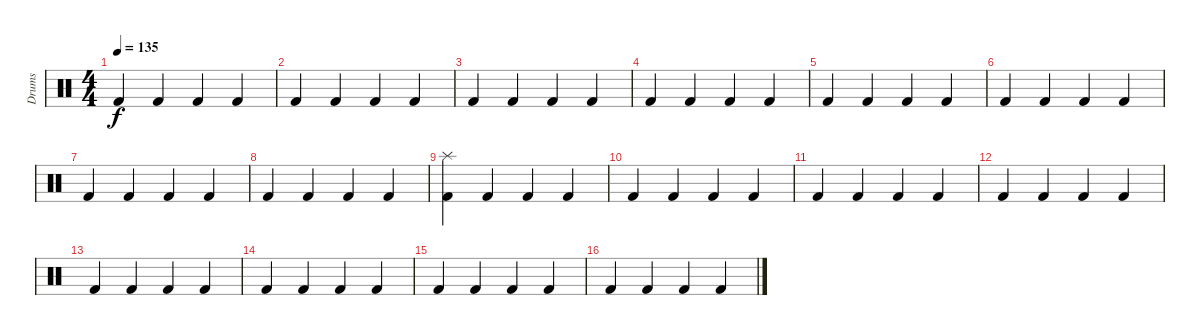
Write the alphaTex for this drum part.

\track ("Drums" "Drums") {instrument percussion}
\staff {score}
\articulation defaults
\ts (4 4)
\tempo 135
\clef neutral
\ks c "Kick (hit) 2".4{dy f} "Kick (hit) 2".4 "Kick (hit) 2".4 "Kick (hit) 2".4
|
"Kick (hit) 2".4 "Kick (hit) 2".4 "Kick (hit) 2".4 "Kick (hit) 2".4 |
"Kick (hit) 2".4 "Kick (hit) 2".4 "Kick (hit) 2".4 "Kick (hit) 2".4 |
"Kick (hit) 2".4 "Kick (hit) 2".4 "Kick (hit) 2".4 "Kick (hit) 2".4 |
"Kick (hit) 2".4 "Kick (hit) 2".4 "Kick (hit) 2".4 "Kick (hit) 2".4 |
"Kick (hit) 2".4 "Kick (hit) 2".4 "Kick (hit) 2".4 "Kick (hit) 2".4 |
"Kick (hit) 2".4 "Kick (hit) 2".4 "Kick (hit) 2".4 "Kick (hit) 2".4 |
"Kick (hit) 2".4 "Kick (hit) 2".4 "Kick (hit) 2".4 "Kick (hit) 2".4 |
("Splash (hit)" "Kick (hit) 2").4 "Kick (hit) 2".4 "Kick (hit) 2".4 "Kick (hit) 2".4 |
"Kick (hit) 2".4 "Kick (hit) 2".4 "Kick (hit) 2".4 "Kick (hit) 2".4 |
"Kick (hit) 2".4 "Kick (hit) 2".4 "Kick (hit) 2".4 "Kick (hit) 2".4 |
"Kick (hit) 2".4 "Kick (hit) 2".4 "Kick (hit) 2".4 "Kick (hit) 2".4 |
"Kick (hit) 2".4 "Kick (hit) 2".4 "Kick (hit) 2".4 "Kick (hit) 2".4 |
"Kick (hit) 2".4 "Kick (hit) 2".4 "Kick (hit) 2".4 "Kick (hit) 2".4 |
"Kick (hit) 2".4 "Kick (hit) 2".4 "Kick (hit) 2".4 "Kick (hit) 2".4 |
"Kick (hit) 2".4 "Kick (hit) 2".4 "Kick (hit) 2".4 "Kick (hit) 2".4
